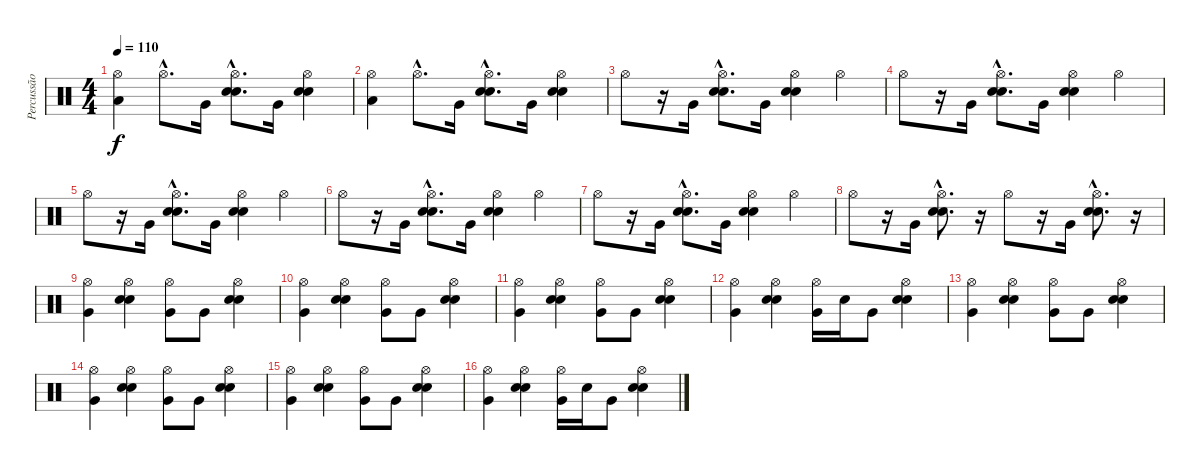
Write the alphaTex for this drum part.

\track ("Percussão" "Percussão") {instrument percussion}
\staff {score}
\articulation defaults
\ts (4 4)
\tempo 110
\clef neutral
\ks c
("Hi-Hat (open)" "Low Floor Tom (hit)").4{dy f} "Hi-Hat (open)"{hac}.8{d} "Very Low Tom (hit)".16 ("Hi-Hat (open)"{hac} "Electric Snare (hit)"{hac} "Snare (hit) 2"{hac}).8{d} "Very Low Tom (hit)".16 ("Hi-Hat (open)" "Electric Snare (hit)" "Snare (hit) 2").4 |
("Hi-Hat (open)" "Low Floor Tom (hit)").4 "Hi-Hat (open)"{hac}.8{d} "Very Low Tom (hit)".16 ("Hi-Hat (open)"{hac} "Electric Snare (hit)"{hac} "Snare (hit) 2"{hac}).8{d} "Very Low Tom (hit)".16 ("Hi-Hat (open)" "Electric Snare (hit)" "Snare (hit) 2").4 |
"Hi-Hat (open)".8 r.16 "Very Low Tom (hit)".16 ("Hi-Hat (open)"{hac} "Electric Snare (hit)"{hac} "Snare (hit) 2"{hac}).8{d} "Very Low Tom (hit)".16 ("Hi-Hat (open)" "Electric Snare (hit)" "Snare (hit) 2").4 "Hi-Hat (open)".4 |
"Hi-Hat (open)".8 r.16 "Very Low Tom (hit)".16 ("Hi-Hat (open)"{hac} "Electric Snare (hit)"{hac} "Snare (hit) 2"{hac}).8{d} "Very Low Tom (hit)".16 ("Hi-Hat (open)" "Electric Snare (hit)" "Snare (hit) 2").4 "Hi-Hat (open)".4 |
"Hi-Hat (open)".8 r.16 "Very Low Tom (hit)".16 ("Hi-Hat (open)"{hac} "Electric Snare (hit)"{hac} "Snare (hit) 2"{hac}).8{d} "Very Low Tom (hit)".16 ("Hi-Hat (open)" "Electric Snare (hit)" "Snare (hit) 2").4 "Hi-Hat (open)".4 |
"Hi-Hat (open)".8 r.16 "Very Low Tom (hit)".16 ("Hi-Hat (open)"{hac} "Electric Snare (hit)"{hac} "Snare (hit) 2"{hac}).8{d} "Very Low Tom (hit)".16 ("Hi-Hat (open)" "Electric Snare (hit)" "Snare (hit) 2").4 "Hi-Hat (open)".4 |
"Hi-Hat (open)".8 r.16 "Very Low Tom (hit)".16 ("Hi-Hat (open)"{hac} "Electric Snare (hit)"{hac} "Snare (hit) 2"{hac}).8{d} "Very Low Tom (hit)".16 ("Hi-Hat (open)" "Electric Snare (hit)" "Snare (hit) 2").4 "Hi-Hat (open)".4 |
"Hi-Hat (open)".8 r.16 "Very Low Tom (hit)".16 ("Hi-Hat (open)"{hac} "Electric Snare (hit)"{hac} "Snare (hit) 2"{hac}).8{d} r.16 "Hi-Hat (open)".8 r.16 "Very Low Tom (hit)".16 ("Hi-Hat (open)"{hac} "Electric Snare (hit)"{hac} "Snare (hit) 2"{hac}).8{d} r.16 |
("Hi-Hat (open)" "Very Low Tom (hit)").4 ("Hi-Hat (open)" "Electric Snare (hit)" "Snare (hit) 2").4 ("Hi-Hat (open)" "Very Low Tom (hit)").8 "Very Low Tom (hit)".8 ("Hi-Hat (open)" "Electric Snare (hit)" "Snare (hit) 2").4 |
("Hi-Hat (open)" "Very Low Tom (hit)").4 ("Hi-Hat (open)" "Electric Snare (hit)" "Snare (hit) 2").4 ("Hi-Hat (open)" "Very Low Tom (hit)").8 "Very Low Tom (hit)".8 ("Hi-Hat (open)" "Electric Snare (hit)" "Snare (hit) 2").4 |
("Hi-Hat (open)" "Very Low Tom (hit)").4 ("Hi-Hat (open)" "Electric Snare (hit)" "Snare (hit) 2").4 ("Hi-Hat (open)" "Very Low Tom (hit)").8 "Very Low Tom (hit)".8 ("Hi-Hat (open)" "Electric Snare (hit)" "Snare (hit) 2").4 |
("Hi-Hat (open)" "Very Low Tom (hit)").4 ("Hi-Hat (open)" "Electric Snare (hit)" "Snare (hit) 2").4 ("Hi-Hat (open)" "Very Low Tom (hit)").16 "Electric Snare (hit)".16 "Very Low Tom (hit)".8 ("Hi-Hat (open)" "Electric Snare (hit)" "Snare (hit) 2").4 |
("Hi-Hat (open)" "Very Low Tom (hit)").4 ("Hi-Hat (open)" "Electric Snare (hit)" "Snare (hit) 2").4 ("Hi-Hat (open)" "Very Low Tom (hit)").8 "Very Low Tom (hit)".8 ("Hi-Hat (open)" "Electric Snare (hit)" "Snare (hit) 2").4 |
("Hi-Hat (open)" "Very Low Tom (hit)").4 ("Hi-Hat (open)" "Electric Snare (hit)" "Snare (hit) 2").4 ("Hi-Hat (open)" "Very Low Tom (hit)").8 "Very Low Tom (hit)".8 ("Hi-Hat (open)" "Electric Snare (hit)" "Snare (hit) 2").4 |
("Hi-Hat (open)" "Very Low Tom (hit)").4 ("Hi-Hat (open)" "Electric Snare (hit)" "Snare (hit) 2").4 ("Hi-Hat (open)" "Very Low Tom (hit)").8 "Very Low Tom (hit)".8 ("Hi-Hat (open)" "Electric Snare (hit)" "Snare (hit) 2").4 |
("Hi-Hat (open)" "Very Low Tom (hit)").4 ("Hi-Hat (open)" "Electric Snare (hit)" "Snare (hit) 2").4 ("Hi-Hat (open)" "Very Low Tom (hit)").16 "Electric Snare (hit)".16 "Very Low Tom (hit)".8 ("Hi-Hat (open)" "Electric Snare (hit)" "Snare (hit) 2").4
